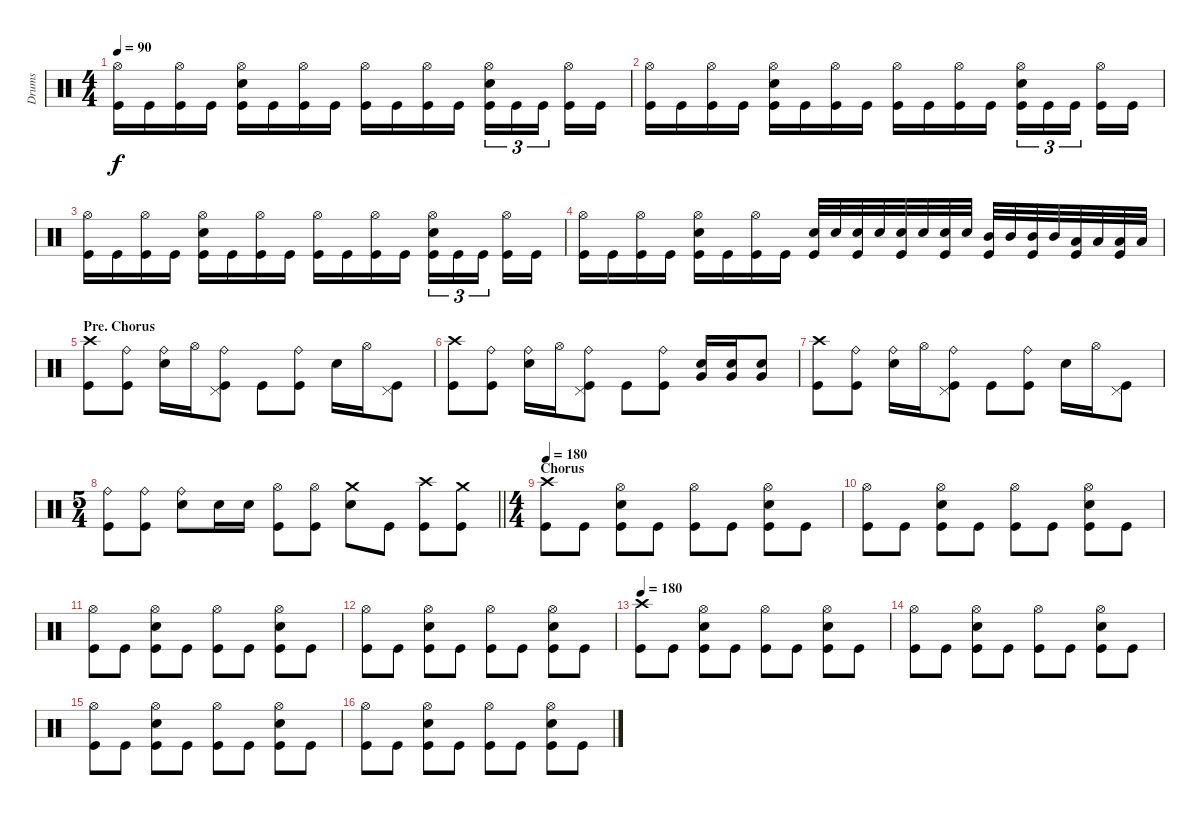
\track ("Drums" "Drums") {instrument percussion}
\staff {score}
\articulation defaults
\ts (4 4)
\tempo 90
\clef neutral
\ks c
("Hi-Hat (open)" "Kick (hit)").16{dy f} "Kick (hit)".16 ("Hi-Hat (open)" "Kick (hit)").16 "Kick (hit)".16 ("Hi-Hat (open)" "Electric Snare (hit)" "Kick (hit)").16 "Kick (hit)".16 ("Hi-Hat (open)" "Kick (hit)").16 "Kick (hit)".16 ("Hi-Hat (open)" "Kick (hit)").16 "Kick (hit)".16 ("Hi-Hat (open)" "Kick (hit)").16 "Kick (hit)".16 ("Hi-Hat (open)" "Electric Snare (hit)" "Kick (hit)").16{tu (3 2)} "Kick (hit)".16{tu (3 2)} "Kick (hit)".16{tu (3 2)} ("Hi-Hat (open)" "Kick (hit)").16 "Kick (hit)".16 |
("Hi-Hat (open)" "Kick (hit)").16 "Kick (hit)".16 ("Hi-Hat (open)" "Kick (hit)").16 "Kick (hit)".16 ("Hi-Hat (open)" "Electric Snare (hit)" "Kick (hit)").16 "Kick (hit)".16 ("Hi-Hat (open)" "Kick (hit)").16 "Kick (hit)".16 ("Hi-Hat (open)" "Kick (hit)").16 "Kick (hit)".16 ("Hi-Hat (open)" "Kick (hit)").16 "Kick (hit)".16 ("Hi-Hat (open)" "Electric Snare (hit)" "Kick (hit)").16{tu (3 2)} "Kick (hit)".16{tu (3 2)} "Kick (hit)".16{tu (3 2)} ("Hi-Hat (open)" "Kick (hit)").16 "Kick (hit)".16 |
("Hi-Hat (open)" "Kick (hit)").16 "Kick (hit)".16 ("Hi-Hat (open)" "Kick (hit)").16 "Kick (hit)".16 ("Hi-Hat (open)" "Electric Snare (hit)" "Kick (hit)").16 "Kick (hit)".16 ("Hi-Hat (open)" "Kick (hit)").16 "Kick (hit)".16 ("Hi-Hat (open)" "Kick (hit)").16 "Kick (hit)".16 ("Hi-Hat (open)" "Kick (hit)").16 "Kick (hit)".16 ("Hi-Hat (open)" "Electric Snare (hit)" "Kick (hit)").16{tu (3 2)} "Kick (hit)".16{tu (3 2)} "Kick (hit)".16{tu (3 2)} ("Hi-Hat (open)" "Kick (hit)").16 "Kick (hit)".16 |
("Hi-Hat (open)" "Kick (hit)").16 "Kick (hit)".16 ("Hi-Hat (open)" "Kick (hit)").16 "Kick (hit)".16 ("Hi-Hat (open)" "Electric Snare (hit)" "Kick (hit)").16 "Kick (hit)".16 ("Hi-Hat (open)" "Kick (hit)").16 "Kick (hit)".16 ("Electric Snare (hit)" "Kick (hit)").32 "Electric Snare (hit)".32 ("Electric Snare (hit)" "Kick (hit)").32 "Electric Snare (hit)".32 ("Electric Snare (hit)" "Kick (hit)").32 "Electric Snare (hit)".32 ("Electric Snare (hit)" "Kick (hit)").32 "Electric Snare (hit)".32 ("Mid Tom (hit)" "Kick (hit)").32 "Mid Tom (hit)".32 ("Mid Tom (hit)" "Kick (hit)").32 "Mid Tom (hit)".32 ("Low Tom (hit)" "Kick (hit)").32 "Low Tom (hit)".32 ("Low Tom (hit)" "Kick (hit)").32 "Low Tom (hit)".32 |
\section ("" "Pre. Chorus")
("Crash high (hit)" "Kick (hit)").8 ("Ride (bell)" "Kick (hit)").8 ("Ride (bell)" "Electric Snare (hit)").16 "Hi-Hat (open)".16 ("Ride (bell)" "Pedal Hi-Hat (hit)" "Kick (hit)").8 "Kick (hit)".8 ("Ride (bell)" "Kick (hit)").8 "Electric Snare (hit)".16 "Hi-Hat (open)".16 ("Pedal Hi-Hat (hit)" "Kick (hit)").8 |
("Crash high (hit)" "Kick (hit)").8 ("Ride (bell)" "Kick (hit)").8 ("Ride (bell)" "Electric Snare (hit)").16 "Hi-Hat (open)".16 ("Ride (bell)" "Pedal Hi-Hat (hit)" "Kick (hit)").8 "Kick (hit)".8 ("Ride (bell)" "Kick (hit)").8 ("Very Low Tom (hit)" "Electric Snare (hit)").16 ("Very Low Tom (hit)" "Electric Snare (hit)").16 ("Very Low Tom (hit)" "Electric Snare (hit)").8 |
("Crash high (hit)" "Kick (hit)").8 ("Ride (bell)" "Kick (hit)").8 ("Ride (bell)" "Electric Snare (hit)").16 "Hi-Hat (open)".16 ("Ride (bell)" "Pedal Hi-Hat (hit)" "Kick (hit)").8 "Kick (hit)".8 ("Ride (bell)" "Kick (hit)").8 "Electric Snare (hit)".16 "Hi-Hat (open)".16 ("Pedal Hi-Hat (hit)" "Kick (hit)").8 |
\ts (5 4)
\barLineRight lightlight
("Ride (bell)" "Kick (hit)").8 ("Ride (bell)" "Kick (hit)").8 ("Ride (bell)" "Electric Snare (hit)").8 "Electric Snare (hit)".16 "Electric Snare (hit)".16 ("Hi-Hat (open)" "Kick (hit)").8 ("Hi-Hat (open)" "Kick (hit)").8 ("Crash medium (hit)" "Electric Snare (hit)").8 "Kick (hit)".8 ("Crash high (hit)" "Kick (hit)").8 ("Crash medium (hit)" "Kick (hit)").8 |
\ts (4 4)
\section ("" "Chorus")
\tempo 180
("Crash high (hit)" "Kick (hit)").8 "Kick (hit)".8 ("Hi-Hat (open)" "Electric Snare (hit)" "Kick (hit)").8 "Kick (hit)".8 ("Hi-Hat (open)" "Kick (hit)").8 "Kick (hit)".8 ("Hi-Hat (open)" "Electric Snare (hit)" "Kick (hit)").8 "Kick (hit)".8 |
("Hi-Hat (open)" "Kick (hit)").8 "Kick (hit)".8 ("Hi-Hat (open)" "Electric Snare (hit)" "Kick (hit)").8 "Kick (hit)".8 ("Hi-Hat (open)" "Kick (hit)").8 "Kick (hit)".8 ("Hi-Hat (open)" "Electric Snare (hit)" "Kick (hit)").8 "Kick (hit)".8 |
("Hi-Hat (open)" "Kick (hit)").8 "Kick (hit)".8 ("Hi-Hat (open)" "Electric Snare (hit)" "Kick (hit)").8 "Kick (hit)".8 ("Hi-Hat (open)" "Kick (hit)").8 "Kick (hit)".8 ("Hi-Hat (open)" "Electric Snare (hit)" "Kick (hit)").8 "Kick (hit)".8 |
("Hi-Hat (open)" "Kick (hit)").8 "Kick (hit)".8 ("Hi-Hat (open)" "Electric Snare (hit)" "Kick (hit)").8 "Kick (hit)".8 ("Hi-Hat (open)" "Kick (hit)").8 "Kick (hit)".8 ("Hi-Hat (open)" "Electric Snare (hit)" "Kick (hit)").8 "Kick (hit)".8 |
\tempo 180
("Crash high (hit)" "Kick (hit)").8 "Kick (hit)".8 ("Hi-Hat (open)" "Electric Snare (hit)" "Kick (hit)").8 "Kick (hit)".8 ("Hi-Hat (open)" "Kick (hit)").8 "Kick (hit)".8 ("Hi-Hat (open)" "Electric Snare (hit)" "Kick (hit)").8 "Kick (hit)".8 |
("Hi-Hat (open)" "Kick (hit)").8 "Kick (hit)".8 ("Hi-Hat (open)" "Electric Snare (hit)" "Kick (hit)").8 "Kick (hit)".8 ("Hi-Hat (open)" "Kick (hit)").8 "Kick (hit)".8 ("Hi-Hat (open)" "Electric Snare (hit)" "Kick (hit)").8 "Kick (hit)".8 |
("Hi-Hat (open)" "Kick (hit)").8 "Kick (hit)".8 ("Hi-Hat (open)" "Electric Snare (hit)" "Kick (hit)").8 "Kick (hit)".8 ("Hi-Hat (open)" "Kick (hit)").8 "Kick (hit)".8 ("Hi-Hat (open)" "Electric Snare (hit)" "Kick (hit)").8 "Kick (hit)".8 |
("Hi-Hat (open)" "Kick (hit)").8 "Kick (hit)".8 ("Hi-Hat (open)" "Electric Snare (hit)" "Kick (hit)").8 "Kick (hit)".8 ("Hi-Hat (open)" "Kick (hit)").8 "Kick (hit)".8 ("Hi-Hat (open)" "Electric Snare (hit)" "Kick (hit)").8 "Kick (hit)".8
